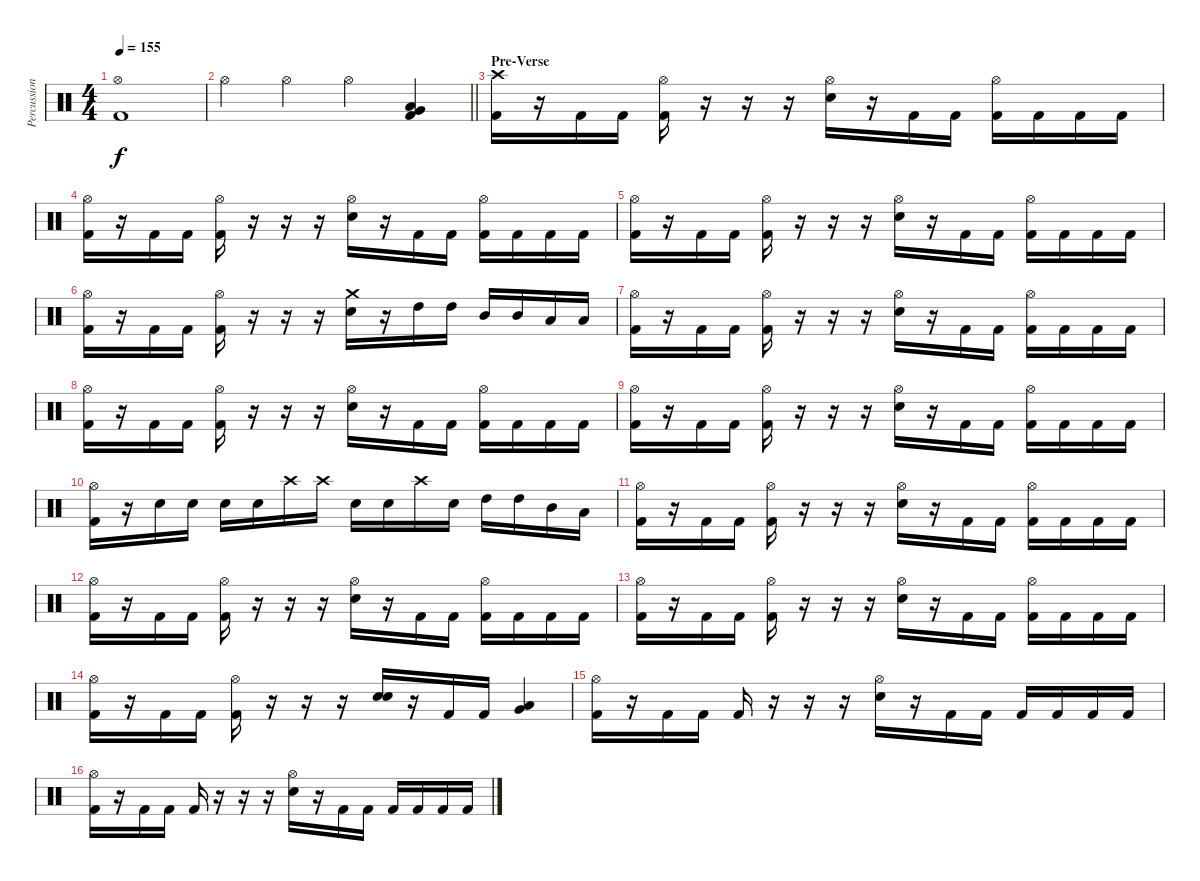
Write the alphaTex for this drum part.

\track ("Percussion" "Percussion") {instrument percussion}
\staff {score}
\articulation defaults
\ts (4 4)
\tempo 155
\clef neutral
\ks c
("Hi-Hat (open)" "Kick (hit) 2").1{dy f} |
\barLineRight lightlight "Hi-Hat (open)".4 "Hi-Hat (open)".4 "Hi-Hat (open)".4
("Very Low Tom (hit)" "Low Floor Tom (hit)" "Kick (hit) 2").4 |
\section ("" "Pre-Verse")
("Crash high (hit)" "Kick (hit) 2").16 r.16 "Kick (hit) 2".16 "Kick (hit) 2".16 ("Hi-Hat (open)" "Kick (hit) 2").16 r.16 r.16 r.16 ("Hi-Hat (open)" "Snare (hit) 2").16 r.16 "Kick (hit) 2".16 "Kick (hit) 2".16 ("Hi-Hat (open)" "Kick (hit) 2").16 "Kick (hit) 2".16 "Kick (hit) 2".16 "Kick (hit) 2".16 |
("Hi-Hat (open)" "Kick (hit) 2").16 r.16 "Kick (hit) 2".16 "Kick (hit) 2".16 ("Hi-Hat (open)" "Kick (hit) 2").16 r.16 r.16 r.16 ("Hi-Hat (open)" "Snare (hit) 2").16 r.16 "Kick (hit) 2".16 "Kick (hit) 2".16 ("Hi-Hat (open)" "Kick (hit) 2").16 "Kick (hit) 2".16 "Kick (hit) 2".16 "Kick (hit) 2".16 |
("Hi-Hat (open)" "Kick (hit) 2").16 r.16 "Kick (hit) 2".16 "Kick (hit) 2".16 ("Hi-Hat (open)" "Kick (hit) 2").16 r.16 r.16 r.16 ("Hi-Hat (open)" "Snare (hit) 2").16 r.16 "Kick (hit) 2".16 "Kick (hit) 2".16 ("Hi-Hat (open)" "Kick (hit) 2").16 "Kick (hit) 2".16 "Kick (hit) 2".16 "Kick (hit) 2".16 |
("Hi-Hat (open)" "Kick (hit) 2").16 r.16 "Kick (hit) 2".16 "Kick (hit) 2".16 ("Hi-Hat (open)" "Kick (hit) 2").16 r.16 r.16 r.16 ("Crash medium (hit)" "Snare (hit) 2").16 r.16 "High Tom (hit)".16 "High Tom (hit)".16 "Mid Tom (hit)".16 "Mid Tom (hit)".16 "Low Tom (hit)".16 "Low Tom (hit)".16 |
("Hi-Hat (open)" "Kick (hit) 2").16 r.16 "Kick (hit) 2".16 "Kick (hit) 2".16 ("Hi-Hat (open)" "Kick (hit) 2").16 r.16 r.16 r.16 ("Hi-Hat (open)" "Snare (hit) 2").16 r.16 "Kick (hit) 2".16 "Kick (hit) 2".16 ("Hi-Hat (open)" "Kick (hit) 2").16 "Kick (hit) 2".16 "Kick (hit) 2".16 "Kick (hit) 2".16 |
("Hi-Hat (open)" "Kick (hit) 2").16 r.16 "Kick (hit) 2".16 "Kick (hit) 2".16 ("Hi-Hat (open)" "Kick (hit) 2").16 r.16 r.16 r.16 ("Hi-Hat (open)" "Snare (hit) 2").16 r.16 "Kick (hit) 2".16 "Kick (hit) 2".16 ("Hi-Hat (open)" "Kick (hit) 2").16 "Kick (hit) 2".16 "Kick (hit) 2".16 "Kick (hit) 2".16 |
("Hi-Hat (open)" "Kick (hit) 2").16 r.16 "Kick (hit) 2".16 "Kick (hit) 2".16 ("Hi-Hat (open)" "Kick (hit) 2").16 r.16 r.16 r.16 ("Hi-Hat (open)" "Snare (hit) 2").16 r.16 "Kick (hit) 2".16 "Kick (hit) 2".16 ("Hi-Hat (open)" "Kick (hit) 2").16 "Kick (hit) 2".16 "Kick (hit) 2".16 "Kick (hit) 2".16 |
("Hi-Hat (open)" "Kick (hit) 2").16 r.16 "Snare (hit) 2".16 "Snare (hit) 2".16 "Snare (hit) 2".16 "Snare (hit) 2".16 "Crash high (hit)".16 "Crash high (hit)".16 "Snare (hit) 2".16 "Snare (hit) 2".16 "Crash high (hit)".16 "Snare (hit) 2".16 "High Tom (hit)".16 "High Tom (hit)".16 "Mid Tom (hit)".16 "Low Tom (hit)".16 |
("Hi-Hat (open)" "Kick (hit) 2").16 r.16 "Kick (hit) 2".16 "Kick (hit) 2".16 ("Hi-Hat (open)" "Kick (hit) 2").16 r.16 r.16 r.16 ("Hi-Hat (open)" "Snare (hit) 2").16 r.16 "Kick (hit) 2".16 "Kick (hit) 2".16 ("Hi-Hat (open)" "Kick (hit) 2").16 "Kick (hit) 2".16 "Kick (hit) 2".16 "Kick (hit) 2".16 |
("Hi-Hat (open)" "Kick (hit) 2").16 r.16 "Kick (hit) 2".16 "Kick (hit) 2".16 ("Hi-Hat (open)" "Kick (hit) 2").16 r.16 r.16 r.16 ("Hi-Hat (open)" "Snare (hit) 2").16 r.16 "Kick (hit) 2".16 "Kick (hit) 2".16 ("Hi-Hat (open)" "Kick (hit) 2").16 "Kick (hit) 2".16 "Kick (hit) 2".16 "Kick (hit) 2".16 |
("Hi-Hat (open)" "Kick (hit) 2").16 r.16 "Kick (hit) 2".16 "Kick (hit) 2".16 ("Hi-Hat (open)" "Kick (hit) 2").16 r.16 r.16 r.16 ("Hi-Hat (open)" "Snare (hit) 2").16 r.16 "Kick (hit) 2".16 "Kick (hit) 2".16 ("Hi-Hat (open)" "Kick (hit) 2").16 "Kick (hit) 2".16 "Kick (hit) 2".16 "Kick (hit) 2".16 |
("Hi-Hat (open)" "Kick (hit) 2").16 r.16 "Kick (hit) 2".16 "Kick (hit) 2".16 ("Hi-Hat (open)" "Kick (hit) 2").16 r.16 r.16 r.16 ("Snare (hit) 2" "Snare (hit) 2").16 r.16 "Kick (hit) 2".16 "Kick (hit) 2".16 ("Low Floor Tom (hit)" "Very Low Tom (hit)").4 |
("Hi-Hat (open)" "Kick (hit) 2").16 r.16 "Kick (hit) 2".16 "Kick (hit) 2".16 "Kick (hit) 2".16 r.16 r.16 r.16 ("Hi-Hat (open)" "Snare (hit) 2").16 r.16 "Kick (hit) 2".16 "Kick (hit) 2".16 "Kick (hit) 2".16 "Kick (hit) 2".16 "Kick (hit) 2".16 "Kick (hit) 2".16 |
("Hi-Hat (open)" "Kick (hit) 2").16 r.16 "Kick (hit) 2".16 "Kick (hit) 2".16 "Kick (hit) 2".16 r.16 r.16 r.16 ("Hi-Hat (open)" "Snare (hit) 2").16 r.16 "Kick (hit) 2".16 "Kick (hit) 2".16 "Kick (hit) 2".16 "Kick (hit) 2".16 "Kick (hit) 2".16 "Kick (hit) 2".16
